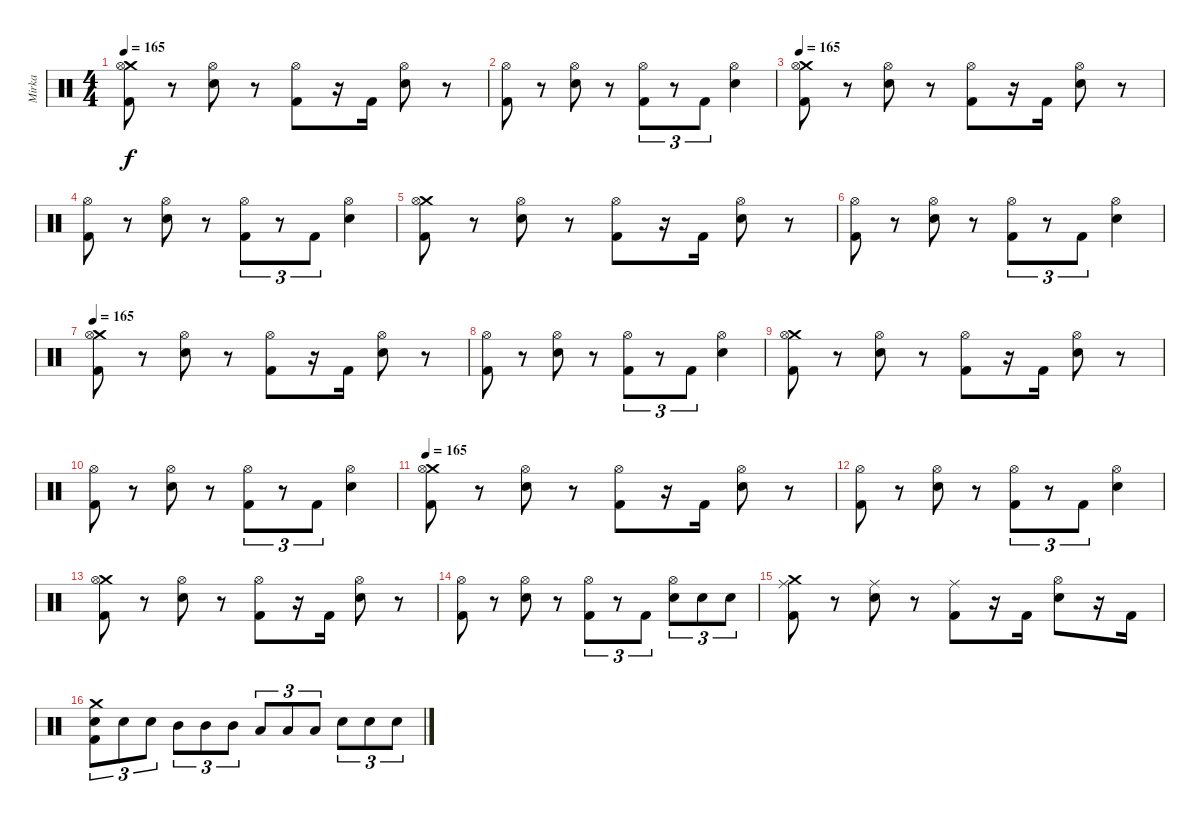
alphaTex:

\track ("Mirka" "Mirka") {instrument percussion}
\staff {score}
\articulation defaults
\ts (4 4)
\tempo 165
\clef neutral
\ks c
("Crash medium (hit)" "Hi-Hat (open)" "Kick (hit) 2").8{dy f} r.8 ("Hi-Hat (open)" "Electric Snare (hit)").8 r.8 ("Hi-Hat (open)" "Kick (hit) 2").8 r.16 "Kick (hit) 2".16 ("Electric Snare (hit)" "Hi-Hat (open)").8 r.8 |
("Hi-Hat (open)" "Kick (hit) 2").8 r.8 ("Hi-Hat (open)" "Electric Snare (hit)").8 r.8 ("Hi-Hat (open)" "Kick (hit) 2").8{tu (3 2)} r.8{tu (3 2)} "Kick (hit) 2".8{tu (3 2)} ("Hi-Hat (open)" "Electric Snare (hit)").4 |
\tempo 165
("Crash medium (hit)" "Hi-Hat (open)" "Kick (hit) 2").8 r.8 ("Hi-Hat (open)" "Electric Snare (hit)").8 r.8 ("Hi-Hat (open)" "Kick (hit) 2").8 r.16 "Kick (hit) 2".16 ("Electric Snare (hit)" "Hi-Hat (open)").8 r.8 |
("Hi-Hat (open)" "Kick (hit) 2").8 r.8 ("Hi-Hat (open)" "Electric Snare (hit)").8 r.8 ("Hi-Hat (open)" "Kick (hit) 2").8{tu (3 2)} r.8{tu (3 2)} "Kick (hit) 2".8{tu (3 2)} ("Hi-Hat (open)" "Electric Snare (hit)").4 |
("Crash medium (hit)" "Hi-Hat (open)" "Kick (hit) 2").8 r.8 ("Hi-Hat (open)" "Electric Snare (hit)").8 r.8 ("Hi-Hat (open)" "Kick (hit) 2").8 r.16 "Kick (hit) 2".16 ("Electric Snare (hit)" "Hi-Hat (open)").8 r.8 |
("Hi-Hat (open)" "Kick (hit) 2").8 r.8 ("Hi-Hat (open)" "Electric Snare (hit)").8 r.8 ("Hi-Hat (open)" "Kick (hit) 2").8{tu (3 2)} r.8{tu (3 2)} "Kick (hit) 2".8{tu (3 2)} ("Hi-Hat (open)" "Electric Snare (hit)").4 |
\tempo 165
("Crash medium (hit)" "Hi-Hat (open)" "Kick (hit) 2").8 r.8 ("Hi-Hat (open)" "Electric Snare (hit)").8 r.8 ("Hi-Hat (open)" "Kick (hit) 2").8 r.16 "Kick (hit) 2".16 ("Electric Snare (hit)" "Hi-Hat (open)").8 r.8 |
("Hi-Hat (open)" "Kick (hit) 2").8 r.8 ("Hi-Hat (open)" "Electric Snare (hit)").8 r.8 ("Hi-Hat (open)" "Kick (hit) 2").8{tu (3 2)} r.8{tu (3 2)} "Kick (hit) 2".8{tu (3 2)} ("Hi-Hat (open)" "Electric Snare (hit)").4 |
("Crash medium (hit)" "Hi-Hat (open)" "Kick (hit) 2").8 r.8 ("Hi-Hat (open)" "Electric Snare (hit)").8 r.8 ("Hi-Hat (open)" "Kick (hit) 2").8 r.16 "Kick (hit) 2".16 ("Electric Snare (hit)" "Hi-Hat (open)").8 r.8 |
("Hi-Hat (open)" "Kick (hit) 2").8 r.8 ("Hi-Hat (open)" "Electric Snare (hit)").8 r.8 ("Hi-Hat (open)" "Kick (hit) 2").8{tu (3 2)} r.8{tu (3 2)} "Kick (hit) 2".8{tu (3 2)} ("Hi-Hat (open)" "Electric Snare (hit)").4 |
\tempo 165
("Crash medium (hit)" "Hi-Hat (open)" "Kick (hit) 2").8 r.8 ("Hi-Hat (open)" "Electric Snare (hit)").8 r.8 ("Hi-Hat (open)" "Kick (hit) 2").8 r.16 "Kick (hit) 2".16 ("Electric Snare (hit)" "Hi-Hat (open)").8 r.8 |
("Hi-Hat (open)" "Kick (hit) 2").8 r.8 ("Hi-Hat (open)" "Electric Snare (hit)").8 r.8 ("Hi-Hat (open)" "Kick (hit) 2").8{tu (3 2)} r.8{tu (3 2)} "Kick (hit) 2".8{tu (3 2)} ("Hi-Hat (open)" "Electric Snare (hit)").4 |
("Crash medium (hit)" "Hi-Hat (open)" "Kick (hit) 2").8 r.8 ("Hi-Hat (open)" "Electric Snare (hit)").8 r.8 ("Hi-Hat (open)" "Kick (hit) 2").8 r.16 "Kick (hit) 2".16 ("Electric Snare (hit)" "Hi-Hat (open)").8 r.8 |
("Hi-Hat (open)" "Kick (hit) 2").8 r.8 ("Hi-Hat (open)" "Electric Snare (hit)").8 r.8 ("Hi-Hat (open)" "Kick (hit) 2").8{tu (3 2)} r.8{tu (3 2)} "Kick (hit) 2".8{tu (3 2)} ("Hi-Hat (open)" "Electric Snare (hit)").8{tu (3 2)} "Electric Snare (hit)".8{tu (3 2)} "Electric Snare (hit)".8{tu (3 2)} |
("Crash medium (hit)" "Ride (middle)" "Kick (hit) 2").8 r.8 ("Ride (middle)" "Electric Snare (hit)").8 r.8 ("Ride (middle)" "Kick (hit) 2").8 r.16 "Kick (hit) 2".16 ("Electric Snare (hit)" "Hi-Hat (open)").8 r.16 "Kick (hit) 2".16 |
("Crash medium (hit)" "Electric Snare (hit)" "Kick (hit) 2").8{tu (3 2)} "Electric Snare (hit)".8{tu (3 2)} "Electric Snare (hit)".8{tu (3 2)} "Mid Tom (hit)".8{tu (3 2)} "Mid Tom (hit)".8{tu (3 2)} "Mid Tom (hit)".8{tu (3 2)} "Low Tom (hit)".8{tu (3 2)} "Low Tom (hit)".8{tu (3 2)} "Low Tom (hit)".8{tu (3 2)} "Electric Snare (hit)".8{tu (3 2)} "Electric Snare (hit)".8{tu (3 2)} "Electric Snare (hit)".8{tu (3 2)}
